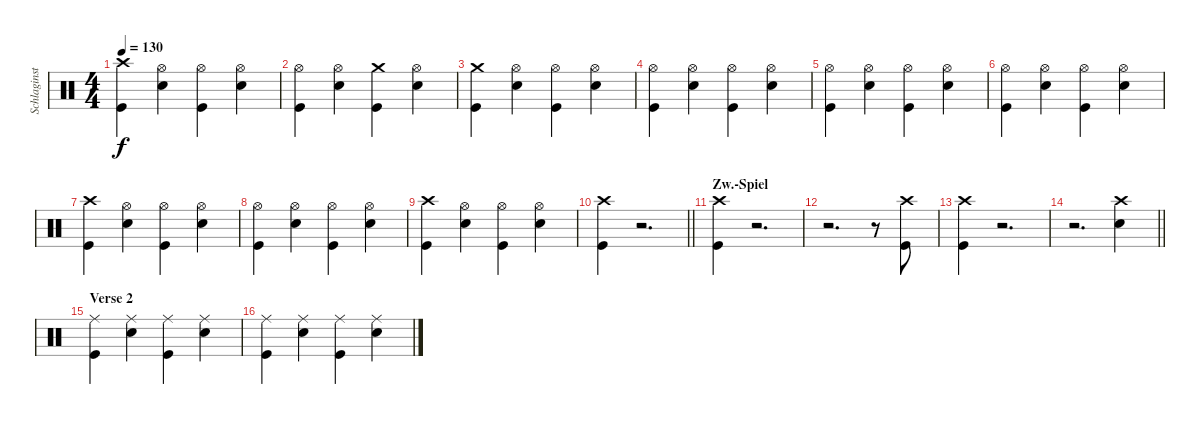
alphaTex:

\track ("Schlaginstrumente - Auswahl" "Schlaginst") {instrument percussion}
\staff {score}
\articulation defaults
\ts (4 4)
\tempo 130
\clef neutral
\ks c
("Crash high (hit)" "Kick (hit)").4{dy f} ("Hi-Hat (open)" "Snare (hit) 2").4 ("Hi-Hat (open)" "Kick (hit)").4 ("Hi-Hat (open)" "Snare (hit) 2").4 |
("Hi-Hat (open)" "Kick (hit)").4 ("Hi-Hat (open)" "Snare (hit) 2").4 ("Crash medium (hit)" "Kick (hit)").4 ("Hi-Hat (open)" "Snare (hit) 2").4 |
("Crash medium (hit)" "Kick (hit)").4 ("Hi-Hat (open)" "Snare (hit) 2").4 ("Hi-Hat (open)" "Kick (hit)").4 ("Hi-Hat (open)" "Snare (hit) 2").4 |
("Hi-Hat (open)" "Kick (hit)").4 ("Hi-Hat (open)" "Snare (hit) 2").4 ("Hi-Hat (open)" "Kick (hit)").4 ("Hi-Hat (open)" "Snare (hit) 2").4 |
("Hi-Hat (open)" "Kick (hit)").4 ("Hi-Hat (open)" "Snare (hit) 2").4 ("Hi-Hat (open)" "Kick (hit)").4 ("Hi-Hat (open)" "Snare (hit) 2").4 |
("Hi-Hat (open)" "Kick (hit)").4 ("Hi-Hat (open)" "Snare (hit) 2").4 ("Hi-Hat (open)" "Kick (hit)").4 ("Hi-Hat (open)" "Snare (hit) 2").4 |
("Crash high (hit)" "Kick (hit)").4 ("Hi-Hat (open)" "Snare (hit) 2").4 ("Hi-Hat (open)" "Kick (hit)").4 ("Hi-Hat (open)" "Snare (hit) 2").4 |
("Hi-Hat (open)" "Kick (hit)").4 ("Hi-Hat (open)" "Snare (hit) 2").4 ("Hi-Hat (open)" "Kick (hit)").4 ("Hi-Hat (open)" "Snare (hit) 2").4 |
("Crash high (hit)" "Kick (hit)").4 ("Hi-Hat (open)" "Snare (hit) 2").4 ("Hi-Hat (open)" "Kick (hit)").4 ("Hi-Hat (open)" "Snare (hit) 2").4 |
\barLineRight lightlight
("Crash high (hit)" "Kick (hit)").4 r.2{d} |
\section ("" "Zw.-Spiel")
("Crash high (hit)" "Kick (hit)").4 r.2{d} |
r.2{d} r.8 ("Kick (hit)" "Crash high (hit)").8 |
("Kick (hit)" "Crash high (hit)").4 r.2{d} |
\barLineRight lightlight
r.2{d} ("Snare (hit) 2" "Crash high (hit)").4 |
\section ("" "Verse 2")
("Ride (middle)" "Kick (hit)").4 ("Ride (middle)" "Snare (hit) 2").4 ("Ride (middle)" "Kick (hit)").4 ("Ride (middle)" "Snare (hit) 2").4 |
("Ride (middle)" "Kick (hit)").4 ("Ride (middle)" "Snare (hit) 2").4 ("Ride (middle)" "Kick (hit)").4 ("Ride (middle)" "Snare (hit) 2").4
